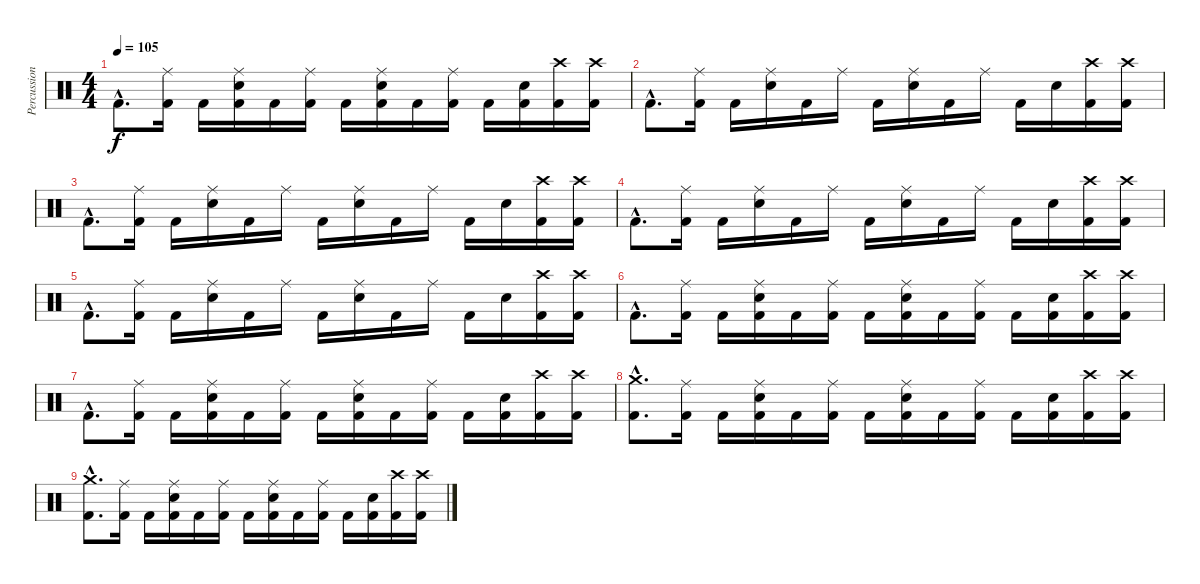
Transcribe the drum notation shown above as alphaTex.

\track ("Percussion" "Percussion") {instrument percussion}
\staff {score}
\articulation defaults
\ts (4 4)
\tempo 105
\clef neutral
\ks c "Kick (hit) 2"{hac}.8{d dy f}
("Ride (middle)" "Kick (hit) 2").16 "Kick (hit) 2".16 ("Ride (middle)" "Snare (hit) 2" "Kick (hit) 2").16 "Kick (hit) 2".16 ("Ride (middle)" "Kick (hit) 2").16 "Kick (hit) 2".16 ("Ride (middle)" "Snare (hit) 2" "Kick (hit) 2").16 "Kick (hit) 2".16 ("Ride (middle)" "Kick (hit) 2").16 "Kick (hit) 2".16 ("Snare (hit) 2" "Kick (hit) 2").16 ("Crash high (hit)" "Kick (hit) 2").16 ("Crash high (hit)" "Kick (hit) 2").16 |
"Kick (hit) 2"{hac}.8{d volume 9} ("Ride (middle)" "Kick (hit) 2").16 "Kick (hit) 2".16 ("Ride (middle)" "Snare (hit) 2").16 "Kick (hit) 2".16 "Ride (middle)".16 "Kick (hit) 2".16 ("Ride (middle)" "Snare (hit) 2").16 "Kick (hit) 2".16 "Ride (middle)".16 "Kick (hit) 2".16 "Snare (hit) 2".16 ("Crash high (hit)" "Kick (hit) 2").16 ("Crash high (hit)" "Kick (hit) 2").16 |
"Kick (hit) 2"{hac}.8{d} ("Ride (middle)" "Kick (hit) 2").16 "Kick (hit) 2".16 ("Ride (middle)" "Snare (hit) 2").16 "Kick (hit) 2".16 "Ride (middle)".16 "Kick (hit) 2".16 ("Ride (middle)" "Snare (hit) 2").16 "Kick (hit) 2".16 "Ride (middle)".16 "Kick (hit) 2".16 "Snare (hit) 2".16 ("Crash high (hit)" "Kick (hit) 2").16 ("Crash high (hit)" "Kick (hit) 2").16 |
"Kick (hit) 2"{hac}.8{d} ("Ride (middle)" "Kick (hit) 2").16 "Kick (hit) 2".16 ("Ride (middle)" "Snare (hit) 2").16 "Kick (hit) 2".16 "Ride (middle)".16 "Kick (hit) 2".16 ("Ride (middle)" "Snare (hit) 2").16 "Kick (hit) 2".16 "Ride (middle)".16 "Kick (hit) 2".16 "Snare (hit) 2".16 ("Crash high (hit)" "Kick (hit) 2").16 ("Crash high (hit)" "Kick (hit) 2").16 |
"Kick (hit) 2"{hac}.8{d} ("Ride (middle)" "Kick (hit) 2").16 "Kick (hit) 2".16 ("Ride (middle)" "Snare (hit) 2").16 "Kick (hit) 2".16 "Ride (middle)".16 "Kick (hit) 2".16 ("Ride (middle)" "Snare (hit) 2").16 "Kick (hit) 2".16 "Ride (middle)".16 "Kick (hit) 2".16 "Snare (hit) 2".16 ("Crash high (hit)" "Kick (hit) 2").16 ("Crash high (hit)" "Kick (hit) 2").16 |
"Kick (hit) 2"{hac}.8{d volume 0} ("Ride (middle)" "Kick (hit) 2").16 "Kick (hit) 2".16 ("Ride (middle)" "Snare (hit) 2" "Kick (hit) 2").16 "Kick (hit) 2".16 ("Ride (middle)" "Kick (hit) 2").16 "Kick (hit) 2".16 ("Ride (middle)" "Snare (hit) 2" "Kick (hit) 2").16 "Kick (hit) 2".16 ("Ride (middle)" "Kick (hit) 2").16 "Kick (hit) 2".16 ("Snare (hit) 2" "Kick (hit) 2").16 ("Crash high (hit)" "Kick (hit) 2").16 ("Crash high (hit)" "Kick (hit) 2").16 |
"Kick (hit) 2"{hac}.8{d} ("Ride (middle)" "Kick (hit) 2").16 "Kick (hit) 2".16 ("Ride (middle)" "Snare (hit) 2" "Kick (hit) 2").16 "Kick (hit) 2".16 ("Ride (middle)" "Kick (hit) 2").16 "Kick (hit) 2".16 ("Ride (middle)" "Snare (hit) 2" "Kick (hit) 2").16 "Kick (hit) 2".16 ("Ride (middle)" "Kick (hit) 2").16 "Kick (hit) 2".16 ("Snare (hit) 2" "Kick (hit) 2").16 ("Crash high (hit)" "Kick (hit) 2").16 ("Crash high (hit)" "Kick (hit) 2").16 |
("Crash medium (hit)"{hac} "Kick (hit) 2"{hac}).8{d} ("Ride (middle)" "Kick (hit) 2").16 "Kick (hit) 2".16 ("Ride (middle)" "Snare (hit) 2" "Kick (hit) 2").16 "Kick (hit) 2".16 ("Ride (middle)" "Kick (hit) 2").16 "Kick (hit) 2".16 ("Ride (middle)" "Snare (hit) 2" "Kick (hit) 2").16 "Kick (hit) 2".16 ("Ride (middle)" "Kick (hit) 2").16 "Kick (hit) 2".16 ("Snare (hit) 2" "Kick (hit) 2").16 ("Crash high (hit)" "Kick (hit) 2").16 ("Crash high (hit)" "Kick (hit) 2").16 |
("Crash medium (hit)"{hac} "Kick (hit) 2"{hac}).8{d} ("Ride (middle)" "Kick (hit) 2").16 "Kick (hit) 2".16 ("Ride (middle)" "Snare (hit) 2" "Kick (hit) 2").16 "Kick (hit) 2".16 ("Ride (middle)" "Kick (hit) 2").16 "Kick (hit) 2".16 ("Ride (middle)" "Snare (hit) 2" "Kick (hit) 2").16 "Kick (hit) 2".16 ("Ride (middle)" "Kick (hit) 2").16 "Kick (hit) 2".16 ("Snare (hit) 2" "Kick (hit) 2").16 ("Crash high (hit)" "Kick (hit) 2").16 ("Crash high (hit)" "Kick (hit) 2").16
